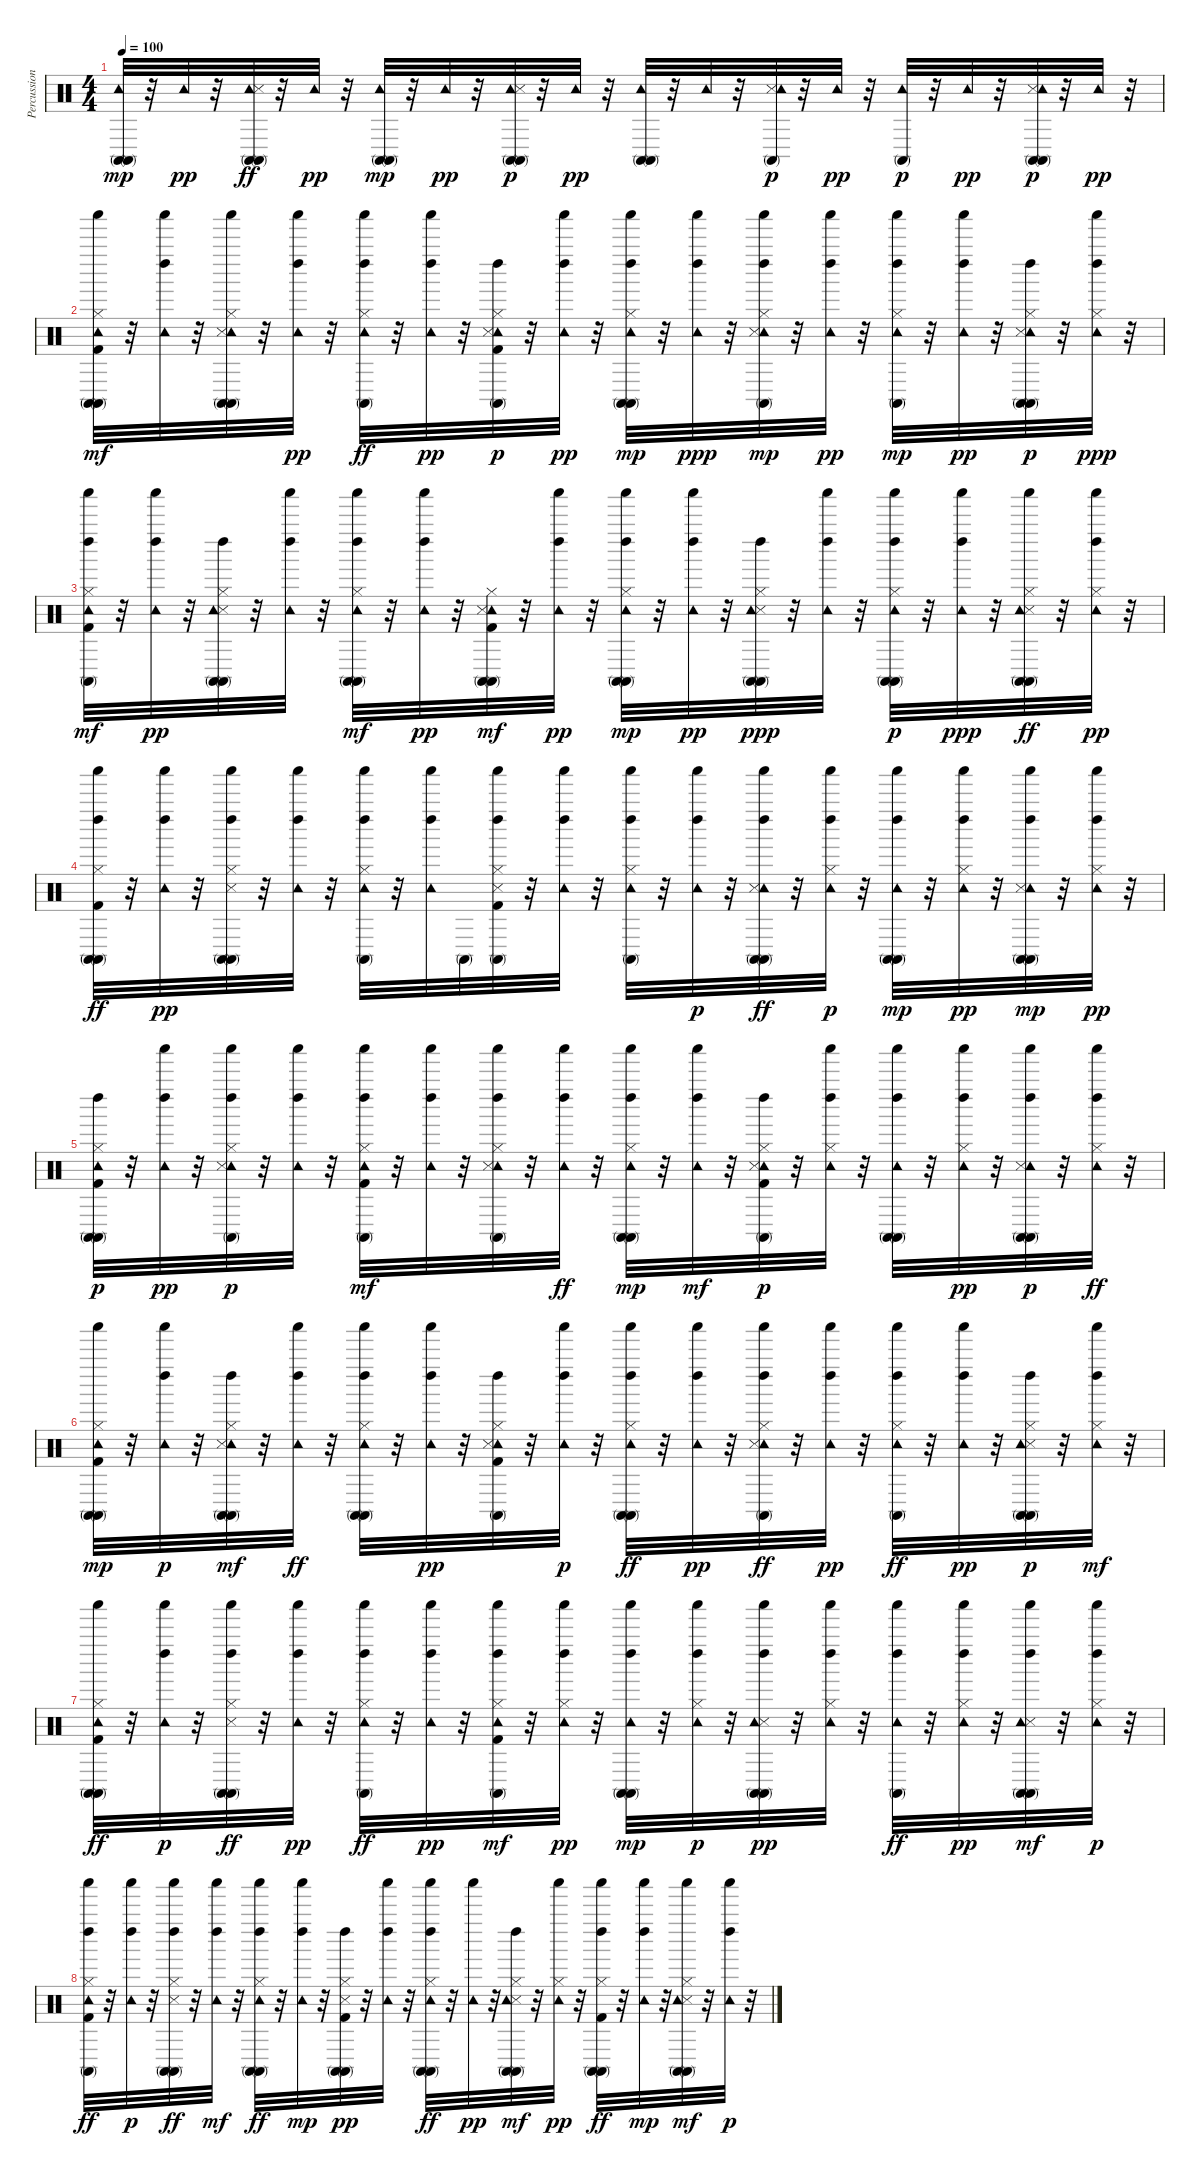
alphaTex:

\track ("Percussions" "Percussion") {instrument percussion}
\staff {score}
\articulation defaults
\ts (4 4)
\tempo 100
\clef neutral
\ks c
("Conga high (mute)" "Tambourine (hit)" "Conga high (mute)").32{dy mp} r.32 "Tambourine (hit)".32{dy pp} r.32 ("Conga high (mute)" "Tambourine (hit)" "Conga high (mute)" "Snare (side stick) 3").32{dy ff} r.32 "Tambourine (hit)".32{dy pp} r.32 ("Conga high (mute)" "Tambourine (hit)" "Conga high (mute)").32{dy mp} r.32 "Tambourine (hit)".32{dy pp} r.32 ("Conga high (mute)" "Tambourine (hit)" "Snare (side stick) 3" "Conga high (mute)").32{dy p} r.32 "Tambourine (hit)".32{dy pp} r.32 ("Conga high (mute)" "Conga high (mute)" "Tambourine (hit)").32 r.32 "Tambourine (hit)".32 r.32 ("Snare (side stick) 3" "Tambourine (hit)" "Conga high (mute)").32{dy p} r.32 "Tambourine (hit)".32{dy pp} r.32 ("Tambourine (hit)" "Conga high (mute)").32{dy p} r.32 "Tambourine (hit)".32{dy pp} r.32 ("Snare (side stick) 3" "Tambourine (hit)" "Conga high (mute)" "Conga high (mute)").32{dy p} r.32 "Tambourine (hit)".32{dy pp} r.32 |
("Conga high (mute)" "Tambourine (hit)" "Kick (hit) 2" "Conga high (mute)" "Hi-Hat (closed)" "Shaker (hit)").32{dy mf} r.32 ("Tambourine (hit)" "Shaker (hit)" "Left Maraca (hit)").32 r.32 ("Conga high (mute)" "Tambourine (hit)" "Conga high (mute)" "Hi-Hat (closed)" "Snare (side stick) 3" "Shaker (hit)").32 r.32 ("Tambourine (hit)" "Shaker (hit)" "Left Maraca (hit)").32{dy pp} r.32 ("Tambourine (hit)" "Hi-Hat (closed)" "Conga high (mute)" "Shaker (hit)" "Left Maraca (hit)").32{dy ff} r.32 ("Left Maraca (hit)" "Tambourine (hit)" "Shaker (hit)").32{dy pp} r.32 ("Conga high (mute)" "Tambourine (hit)" "Snare (side stick) 3" "Kick (hit) 2" "Hi-Hat (closed)" "Left Maraca (hit)").32{dy p} r.32 ("Tambourine (hit)" "Left Maraca (hit)" "Shaker (hit)").32{dy pp} r.32 ("Tambourine (hit)" "Hi-Hat (closed)" "Conga high (mute)" "Left Maraca (hit)" "Shaker (hit)" "Conga high (mute)").32{dy mp} r.32 ("Tambourine (hit)" "Left Maraca (hit)" "Shaker (hit)").32{dy ppp} r.32 ("Tambourine (hit)" "Hi-Hat (closed)" "Conga high (mute)" "Snare (side stick) 3" "Left Maraca (hit)" "Shaker (hit)").32{dy mp} r.32 ("Tambourine (hit)" "Left Maraca (hit)" "Shaker (hit)").32{dy pp} r.32 ("Conga high (mute)" "Tambourine (hit)" "Hi-Hat (closed)" "Left Maraca (hit)" "Shaker (hit)").32{dy mp} r.32 ("Tambourine (hit)" "Left Maraca (hit)" "Shaker (hit)").32{dy pp} r.32 ("Conga high (mute)" "Tambourine (hit)" "Conga high (mute)" "Snare (side stick) 3" "Hi-Hat (closed)" "Left Maraca (hit)").32{dy p} r.32 ("Hi-Hat (closed)" "Tambourine (hit)" "Left Maraca (hit)" "Shaker (hit)").32{dy ppp} r.32 |
("Tambourine (hit)" "Conga high (mute)" "Hi-Hat (closed)" "Kick (hit) 2" "Left Maraca (hit)" "Shaker (hit)").32{dy mf} r.32 ("Tambourine (hit)" "Left Maraca (hit)" "Shaker (hit)").32{dy pp} r.32 ("Conga high (mute)" "Snare (side stick) 3" "Tambourine (hit)" "Conga high (mute)" "Hi-Hat (closed)" "Left Maraca (hit)").32 r.32 ("Tambourine (hit)" "Left Maraca (hit)" "Shaker (hit)").32 r.32 ("Conga high (mute)" "Tambourine (hit)" "Conga high (mute)" "Hi-Hat (closed)" "Shaker (hit)" "Left Maraca (hit)").32{dy mf} r.32 ("Tambourine (hit)" "Left Maraca (hit)" "Shaker (hit)").32{dy pp} r.32 ("Conga high (mute)" "Tambourine (hit)" "Snare (side stick) 3" "Hi-Hat (closed)" "Conga high (mute)" "Kick (hit) 2").32{dy mf} r.32 ("Tambourine (hit)" "Left Maraca (hit)" "Shaker (hit)").32{dy pp} r.32 ("Conga high (mute)" "Tambourine (hit)" "Conga high (mute)" "Hi-Hat (closed)" "Left Maraca (hit)" "Shaker (hit)").32{dy mp} r.32 ("Tambourine (hit)" "Left Maraca (hit)" "Shaker (hit)").32{dy pp} r.32 ("Conga high (mute)" "Snare (side stick) 3" "Tambourine (hit)" "Hi-Hat (closed)" "Conga high (mute)" "Left Maraca (hit)").32{dy ppp} r.32 ("Left Maraca (hit)" "Tambourine (hit)" "Shaker (hit)").32 r.32 ("Conga high (mute)" "Tambourine (hit)" "Left Maraca (hit)" "Hi-Hat (closed)" "Conga high (mute)" "Shaker (hit)").32{dy p} r.32 ("Tambourine (hit)" "Left Maraca (hit)" "Shaker (hit)").32{dy ppp} r.32 ("Conga high (mute)" "Conga high (mute)" "Snare (side stick) 3" "Tambourine (hit)" "Hi-Hat (closed)" "Shaker (hit)").32{dy ff} r.32 ("Left Maraca (hit)" "Hi-Hat (closed)" "Tambourine (hit)" "Shaker (hit)").32{dy pp} r.32 |
("Conga high (mute)" "Conga high (mute)" "Left Maraca (hit)" "Hi-Hat (closed)" "Kick (hit) 2" "Shaker (hit)").32{dy ff} r.32 ("Left Maraca (hit)" "Shaker (hit)" "Tambourine (hit)").32{dy pp} r.32 ("Conga high (mute)" "Conga high (mute)" "Left Maraca (hit)" "Snare (side stick) 3" "Shaker (hit)" "Hi-Hat (closed)").32 r.32 ("Left Maraca (hit)" "Shaker (hit)" "Tambourine (hit)").32 r.32 ("Conga high (mute)" "Left Maraca (hit)" "Shaker (hit)" "Hi-Hat (closed)" "Tambourine (hit)").32 r.32 ("Left Maraca (hit)" "Shaker (hit)" "Tambourine (hit)").32 "Conga high (mute)".32 ("Conga high (mute)" "Left Maraca (hit)" "Shaker (hit)" "Kick (hit) 2" "Snare (side stick) 3" "Hi-Hat (closed)").32 r.32 ("Left Maraca (hit)" "Tambourine (hit)" "Shaker (hit)").32 r.32 ("Conga high (mute)" "Left Maraca (hit)" "Shaker (hit)" "Hi-Hat (closed)" "Tambourine (hit)").32 r.32 ("Left Maraca (hit)" "Tambourine (hit)" "Shaker (hit)").32{dy p} r.32 ("Conga high (mute)" "Left Maraca (hit)" "Conga high (mute)" "Tambourine (hit)" "Shaker (hit)" "Snare (side stick) 3").32{dy ff} r.32 ("Tambourine (hit)" "Left Maraca (hit)" "Hi-Hat (closed)" "Shaker (hit)").32{dy p} r.32 ("Conga high (mute)" "Tambourine (hit)" "Left Maraca (hit)" "Conga high (mute)" "Shaker (hit)").32{dy mp} r.32 ("Tambourine (hit)" "Left Maraca (hit)" "Hi-Hat (closed)" "Shaker (hit)").32{dy pp} r.32 ("Conga high (mute)" "Tambourine (hit)" "Left Maraca (hit)" "Snare (side stick) 3" "Conga high (mute)" "Shaker (hit)").32{dy mp} r.32 ("Tambourine (hit)" "Left Maraca (hit)" "Hi-Hat (closed)" "Shaker (hit)").32{dy pp} r.32 |
("Conga high (mute)" "Tambourine (hit)" "Left Maraca (hit)" "Kick (hit) 2" "Hi-Hat (closed)" "Conga high (mute)").32{dy p} r.32 ("Tambourine (hit)" "Left Maraca (hit)" "Shaker (hit)").32{dy pp} r.32 ("Conga high (mute)" "Tambourine (hit)" "Left Maraca (hit)" "Snare (side stick) 3" "Hi-Hat (closed)" "Shaker (hit)").32{dy p} r.32 ("Tambourine (hit)" "Left Maraca (hit)" "Shaker (hit)").32 r.32 ("Conga high (mute)" "Tambourine (hit)" "Left Maraca (hit)" "Kick (hit) 2" "Hi-Hat (closed)" "Shaker (hit)").32{dy mf} r.32 ("Tambourine (hit)" "Shaker (hit)" "Left Maraca (hit)").32 r.32 ("Tambourine (hit)" "Conga high (mute)" "Left Maraca (hit)" "Snare (side stick) 3" "Hi-Hat (closed)" "Shaker (hit)").32 r.32 ("Tambourine (hit)" "Shaker (hit)" "Left Maraca (hit)").32{dy ff} r.32 ("Conga high (mute)" "Tambourine (hit)" "Hi-Hat (closed)" "Conga high (mute)" "Shaker (hit)" "Left Maraca (hit)").32{dy mp} r.32 ("Tambourine (hit)" "Shaker (hit)" "Left Maraca (hit)").32{dy mf} r.32 ("Conga high (mute)" "Tambourine (hit)" "Kick (hit) 2" "Snare (side stick) 3" "Hi-Hat (closed)" "Left Maraca (hit)").32{dy p} r.32 ("Tambourine (hit)" "Hi-Hat (closed)" "Left Maraca (hit)" "Shaker (hit)").32 r.32 ("Conga high (mute)" "Tambourine (hit)" "Left Maraca (hit)" "Shaker (hit)" "Conga high (mute)").32 r.32 ("Tambourine (hit)" "Hi-Hat (closed)" "Left Maraca (hit)" "Shaker (hit)").32{dy pp} r.32 ("Conga high (mute)" "Tambourine (hit)" "Conga high (mute)" "Snare (side stick) 3" "Shaker (hit)" "Left Maraca (hit)").32{dy p} r.32 ("Tambourine (hit)" "Hi-Hat (closed)" "Shaker (hit)" "Left Maraca (hit)").32{dy ff} r.32 |
("Conga high (mute)" "Tambourine (hit)" "Hi-Hat (closed)" "Shaker (hit)" "Kick (hit) 2" "Conga high (mute)").32{dy mp} r.32 ("Tambourine (hit)" "Left Maraca (hit)" "Shaker (hit)").32{dy p} r.32 ("Conga high (mute)" "Tambourine (hit)" "Snare (side stick) 3" "Hi-Hat (closed)" "Left Maraca (hit)" "Conga high (mute)").32{dy mf} r.32 ("Tambourine (hit)" "Shaker (hit)" "Left Maraca (hit)").32{dy ff} r.32 ("Conga high (mute)" "Tambourine (hit)" "Hi-Hat (closed)" "Conga high (mute)" "Left Maraca (hit)" "Shaker (hit)").32 r.32 ("Tambourine (hit)" "Left Maraca (hit)" "Shaker (hit)").32{dy pp} r.32 ("Conga high (mute)" "Tambourine (hit)" "Left Maraca (hit)" "Snare (side stick) 3" "Kick (hit) 2" "Hi-Hat (closed)").32 r.32 ("Tambourine (hit)" "Left Maraca (hit)" "Shaker (hit)").32{dy p} r.32 ("Conga high (mute)" "Conga high (mute)" "Tambourine (hit)" "Hi-Hat (closed)" "Left Maraca (hit)" "Shaker (hit)").32{dy ff} r.32 ("Tambourine (hit)" "Left Maraca (hit)" "Shaker (hit)").32{dy pp} r.32 ("Tambourine (hit)" "Snare (side stick) 3" "Hi-Hat (closed)" "Left Maraca (hit)" "Conga high (mute)" "Shaker (hit)").32{dy ff} r.32 ("Tambourine (hit)" "Left Maraca (hit)" "Shaker (hit)").32{dy pp} r.32 ("Hi-Hat (closed)" "Tambourine (hit)" "Left Maraca (hit)" "Conga high (mute)" "Shaker (hit)").32{dy ff} r.32 ("Tambourine (hit)" "Left Maraca (hit)" "Shaker (hit)").32{dy pp} r.32 ("Conga high (mute)" "Hi-Hat (closed)" "Snare (side stick) 3" "Tambourine (hit)" "Left Maraca (hit)" "Conga high (mute)").32{dy p} r.32 ("Hi-Hat (closed)" "Tambourine (hit)" "Shaker (hit)" "Left Maraca (hit)").32{dy mf} r.32 |
("Conga high (mute)" "Hi-Hat (closed)" "Conga high (mute)" "Kick (hit) 2" "Tambourine (hit)" "Shaker (hit)").32{dy ff} r.32 ("Tambourine (hit)" "Left Maraca (hit)" "Shaker (hit)").32{dy p} r.32 ("Conga high (mute)" "Conga high (mute)" "Left Maraca (hit)" "Hi-Hat (closed)" "Snare (side stick) 3" "Shaker (hit)").32{dy ff} r.32 ("Tambourine (hit)" "Left Maraca (hit)" "Shaker (hit)").32{dy pp} r.32 ("Hi-Hat (closed)" "Tambourine (hit)" "Conga high (mute)" "Shaker (hit)" "Left Maraca (hit)").32{dy ff} r.32 ("Shaker (hit)" "Left Maraca (hit)" "Tambourine (hit)").32{dy pp} r.32 ("Left Maraca (hit)" "Conga high (mute)" "Kick (hit) 2" "Hi-Hat (closed)" "Tambourine (hit)" "Shaker (hit)").32{dy mf} r.32 ("Hi-Hat (closed)" "Left Maraca (hit)" "Shaker (hit)" "Tambourine (hit)").32{dy pp} r.32 ("Left Maraca (hit)" "Tambourine (hit)" "Conga high (mute)" "Shaker (hit)" "Conga high (mute)").32{dy mp} r.32 ("Hi-Hat (closed)" "Left Maraca (hit)" "Tambourine (hit)" "Shaker (hit)").32{dy p} r.32 ("Left Maraca (hit)" "Conga high (mute)" "Snare (side stick) 3" "Shaker (hit)" "Tambourine (hit)" "Conga high (mute)").32{dy pp} r.32 ("Hi-Hat (closed)" "Left Maraca (hit)" "Tambourine (hit)" "Shaker (hit)").32 r.32 ("Conga high (mute)" "Tambourine (hit)" "Left Maraca (hit)" "Shaker (hit)").32{dy ff} r.32 ("Hi-Hat (closed)" "Shaker (hit)" "Left Maraca (hit)" "Tambourine (hit)").32{dy pp} r.32 ("Conga high (mute)" "Snare (side stick) 3" "Left Maraca (hit)" "Conga high (mute)" "Shaker (hit)" "Tambourine (hit)").32{dy mf} r.32 ("Hi-Hat (closed)" "Tambourine (hit)" "Shaker (hit)" "Left Maraca (hit)").32{dy p} r.32 |
("Conga high (mute)" "Hi-Hat (closed)" "Kick (hit) 2" "Shaker (hit)" "Tambourine (hit)" "Left Maraca (hit)").32{dy ff} r.32 ("Tambourine (hit)" "Shaker (hit)" "Left Maraca (hit)").32{dy p} r.32 ("Conga high (mute)" "Left Maraca (hit)" "Hi-Hat (closed)" "Conga high (mute)" "Shaker (hit)" "Snare (side stick) 3").32{dy ff} r.32 ("Tambourine (hit)" "Shaker (hit)" "Left Maraca (hit)").32{dy mf} r.32 ("Conga high (mute)" "Conga high (mute)" "Hi-Hat (closed)" "Tambourine (hit)" "Shaker (hit)" "Left Maraca (hit)").32{dy ff} r.32 ("Shaker (hit)" "Tambourine (hit)" "Left Maraca (hit)").32{dy mp} r.32 ("Conga high (mute)" "Snare (side stick) 3" "Conga high (mute)" "Kick (hit) 2" "Hi-Hat (closed)" "Left Maraca (hit)").32{dy pp} r.32 ("Tambourine (hit)" "Shaker (hit)" "Left Maraca (hit)").32 r.32 ("Conga high (mute)" "Conga high (mute)" "Hi-Hat (closed)" "Shaker (hit)" "Tambourine (hit)" "Left Maraca (hit)").32{dy ff} r.32 ("Shaker (hit)" "Tambourine (hit)").32{dy pp} r.32 ("Conga high (mute)" "Left Maraca (hit)" "Snare (side stick) 3" "Hi-Hat (closed)" "Conga high (mute)" "Tambourine (hit)").32{dy mf} r.32 ("Hi-Hat (closed)" "Tambourine (hit)" "Shaker (hit)").32{dy pp} r.32 ("Left Maraca (hit)" "Conga high (mute)" "Kick (hit) 2" "Hi-Hat (closed)" "Conga high (mute)" "Shaker (hit)").32{dy ff} r.32 ("Shaker (hit)" "Tambourine (hit)" "Left Maraca (hit)").32{dy mp} r.32 ("Conga high (mute)" "Conga high (mute)" "Snare (side stick) 3" "Hi-Hat (closed)" "Shaker (hit)" "Tambourine (hit)").32{dy mf} r.32 ("Tambourine (hit)" "Shaker (hit)" "Left Maraca (hit)").32{dy p} r.32
